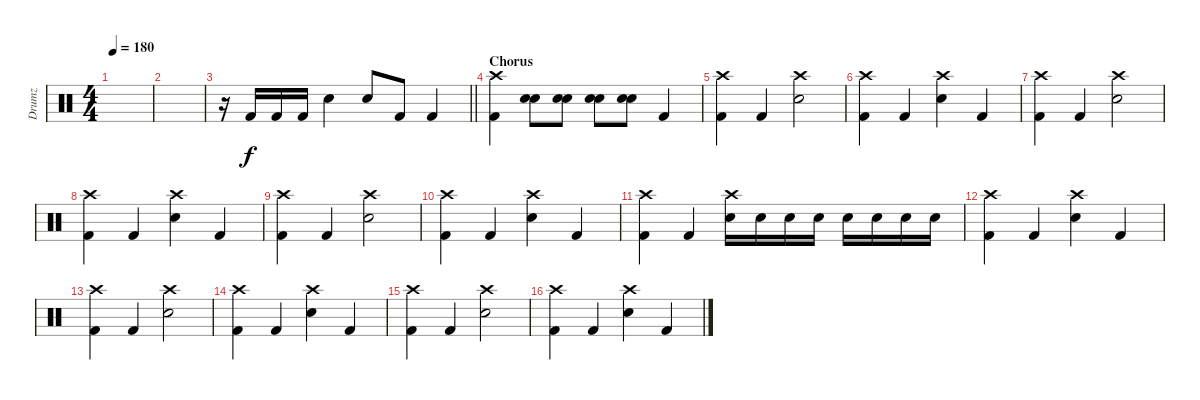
\track ("Drumz" "Drumz") {instrument percussion}
\staff {score}
\articulation defaults
\ts (4 4)
\tempo 180
\clef neutral
\ks c
|
|
\barLineRight lightlight
r.16 "Kick (hit) 2".16 "Kick (hit) 2".16 "Kick (hit) 2".16 "Snare (hit) 2".4 "Snare (hit) 2".8 "Kick (hit) 2".8 "Kick (hit) 2".4 |
\section ("" "Chorus")
("Kick (hit) 2" "Crash high (hit)").4 ("Electric Snare (hit)" "Electric Snare (hit)").8 ("Electric Snare (hit)" "Electric Snare (hit)").8 ("Electric Snare (hit)" "Electric Snare (hit)").8 ("Electric Snare (hit)" "Electric Snare (hit)").8 "Kick (hit) 2".4 |
("Crash high (hit)" "Kick (hit) 2").4 "Kick (hit) 2".4 ("Crash high (hit)" "Snare (hit) 2").2 |
("Kick (hit) 2" "Crash high (hit)").4 "Kick (hit) 2".4 ("Snare (hit) 2" "Crash high (hit)").4 "Kick (hit) 2".4 |
("Crash high (hit)" "Kick (hit) 2").4 "Kick (hit) 2".4 ("Crash high (hit)" "Snare (hit) 2").2 |
("Kick (hit) 2" "Crash high (hit)").4 "Kick (hit) 2".4 ("Snare (hit) 2" "Crash high (hit)").4 "Kick (hit) 2".4 |
("Crash high (hit)" "Kick (hit) 2").4 "Kick (hit) 2".4 ("Crash high (hit)" "Snare (hit) 2").2 |
("Kick (hit) 2" "Crash high (hit)").4 "Kick (hit) 2".4 ("Snare (hit) 2" "Crash high (hit)").4 "Kick (hit) 2".4 |
("Crash high (hit)" "Kick (hit) 2").4 "Kick (hit) 2".4 ("Crash high (hit)" "Electric Snare (hit)").16 "Electric Snare (hit)".16 "Electric Snare (hit)".16 "Electric Snare (hit)".16 "Electric Snare (hit)".16 "Electric Snare (hit)".16 "Electric Snare (hit)".16 "Electric Snare (hit)".16 |
("Kick (hit) 2" "Crash high (hit)").4 "Kick (hit) 2".4 ("Snare (hit) 2" "Crash high (hit)").4 "Kick (hit) 2".4 |
("Crash high (hit)" "Kick (hit) 2").4 "Kick (hit) 2".4 ("Crash high (hit)" "Snare (hit) 2").2 |
("Kick (hit) 2" "Crash high (hit)").4 "Kick (hit) 2".4 ("Snare (hit) 2" "Crash high (hit)").4 "Kick (hit) 2".4 |
("Crash high (hit)" "Kick (hit) 2").4 "Kick (hit) 2".4 ("Crash high (hit)" "Snare (hit) 2").2 |
("Kick (hit) 2" "Crash high (hit)").4 "Kick (hit) 2".4 ("Snare (hit) 2" "Crash high (hit)").4 "Kick (hit) 2".4
